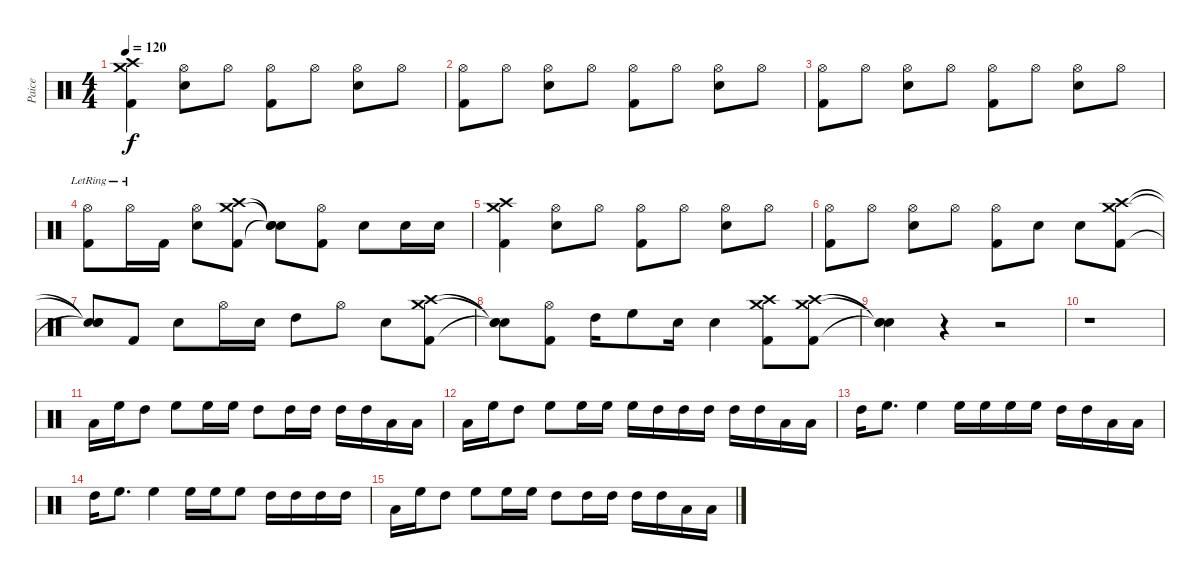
\track ("Paice" "Paice") {instrument percussion}
\staff {score}
\articulation defaults
\ts (4 4)
\tempo 120
\clef neutral
\ks c
("Crash high (hit)" "Crash medium (hit)" "Kick (hit) 2").4{dy f} ("Hi-Hat (open)" "Electric Snare (hit)").8 "Hi-Hat (open)".8 ("Hi-Hat (open)" "Kick (hit) 2").8 "Hi-Hat (open)".8 ("Hi-Hat (open)" "Electric Snare (hit)").8 "Hi-Hat (open)".8 |
("Hi-Hat (open)" "Kick (hit) 2").8 "Hi-Hat (open)".8 ("Hi-Hat (open)" "Electric Snare (hit)").8 "Hi-Hat (open)".8 ("Hi-Hat (open)" "Kick (hit) 2").8 "Hi-Hat (open)".8 ("Hi-Hat (open)" "Electric Snare (hit)").8 "Hi-Hat (open)".8 |
("Hi-Hat (open)" "Kick (hit) 2").8 "Hi-Hat (open)".8 ("Hi-Hat (open)" "Electric Snare (hit)").8 "Hi-Hat (open)".8 ("Hi-Hat (open)" "Kick (hit) 2").8 "Hi-Hat (open)".8 ("Hi-Hat (open)" "Electric Snare (hit)").8 "Hi-Hat (open)".8 |
("Hi-Hat (open)" "Kick (hit) 2"{lr}).8 "Hi-Hat (open)"{lr}.16 "Kick (hit) 2".16 ("Hi-Hat (open)" "Electric Snare (hit)").8 ("Crash high (hit)" "Crash medium (hit)" "Kick (hit) 2").8 ("Snare (hit)"{t} "Snare (hit)"{t} "Snare (hit)"{t}).8 ("Hi-Hat (open)" "Kick (hit) 2").8 "Electric Snare (hit)".8 "Electric Snare (hit)".16 "Electric Snare (hit)".16 |
("Crash high (hit)" "Crash medium (hit)" "Kick (hit) 2").4 ("Hi-Hat (open)" "Electric Snare (hit)").8 "Hi-Hat (open)".8 ("Hi-Hat (open)" "Kick (hit) 2").8 "Hi-Hat (open)".8 ("Hi-Hat (open)" "Electric Snare (hit)").8 "Hi-Hat (open)".8 |
("Hi-Hat (open)" "Kick (hit) 2").8 "Hi-Hat (open)".8 ("Hi-Hat (open)" "Electric Snare (hit)").8 "Hi-Hat (open)".8 ("Hi-Hat (open)" "Kick (hit) 2").8 "Electric Snare (hit)".8 "Electric Snare (hit)".8 ("Crash high (hit)" "Crash medium (hit)" "Kick (hit) 2").8 |
("Snare (hit)"{t} "Snare (hit)"{t} "Snare (hit)"{t}).8 "Kick (hit) 2".8 "Electric Snare (hit)".8 "Hi-Hat (open)".16 "Electric Snare (hit)".16 "High Tom (hit)".8 "Hi-Hat (open)".8 "Electric Snare (hit)".8 ("Crash high (hit)" "Crash medium (hit)" "Kick (hit) 2").8 |
("Snare (hit)"{t} "Snare (hit)"{t} "Snare (hit)"{t}).8 ("Hi-Hat (open)" "Kick (hit) 2").8 "High Tom (hit)".16 "High Floor Tom (hit)".8 "Electric Snare (hit)".16 "Electric Snare (hit)".4 ("Crash high (hit)" "Crash medium (hit)" "Kick (hit) 2").8 ("Crash high (hit)" "Crash medium (hit)" "Kick (hit) 2").8 |
("Snare (hit)"{t} "Snare (hit)"{t} "Snare (hit)"{t}).4 r.4 r.2 |
r.1 |
"Low Tom (hit)".16 "High Floor Tom (hit)".16 "High Tom (hit)".8 "High Floor Tom (hit)".8 "High Floor Tom (hit)".16 "High Floor Tom (hit)".16 "High Tom (hit)".8 "High Tom (hit)".16 "High Tom (hit)".16 "High Tom (hit)".16 "High Tom (hit)".16 "Low Tom (hit)".16 "Low Tom (hit)".16 |
"Low Tom (hit)".16 "High Floor Tom (hit)".16 "High Tom (hit)".8 "High Floor Tom (hit)".8 "High Floor Tom (hit)".16 "High Floor Tom (hit)".16 "High Floor Tom (hit)".16 "High Tom (hit)".16 "High Tom (hit)".16 "High Tom (hit)".16 "High Tom (hit)".16 "High Tom (hit)".16 "Low Tom (hit)".16 "Low Tom (hit)".16 |
"High Tom (hit)".16{volume 6} "High Floor Tom (hit)".8{d} "High Floor Tom (hit)".4 "High Floor Tom (hit)".16 "High Floor Tom (hit)".16 "High Floor Tom (hit)".16 "High Floor Tom (hit)".16 "High Tom (hit)".16 "High Tom (hit)".16 "Low Tom (hit)".16 "Low Tom (hit)".16 |
"High Tom (hit)".16{volume 3} "High Floor Tom (hit)".8{d} "High Floor Tom (hit)".4 "High Floor Tom (hit)".16 "High Floor Tom (hit)".16 "High Floor Tom (hit)".8 "High Tom (hit)".16 "High Tom (hit)".16 "High Tom (hit)".16 "High Tom (hit)".16 |
"Low Tom (hit)".16 "High Floor Tom (hit)".16 "High Tom (hit)".8 "High Floor Tom (hit)".8 "High Floor Tom (hit)".16 "High Floor Tom (hit)".16 "High Tom (hit)".8 "High Tom (hit)".16 "High Tom (hit)".16 "High Tom (hit)".16 "High Tom (hit)".16 "Low Tom (hit)".16 "Low Tom (hit)".16
